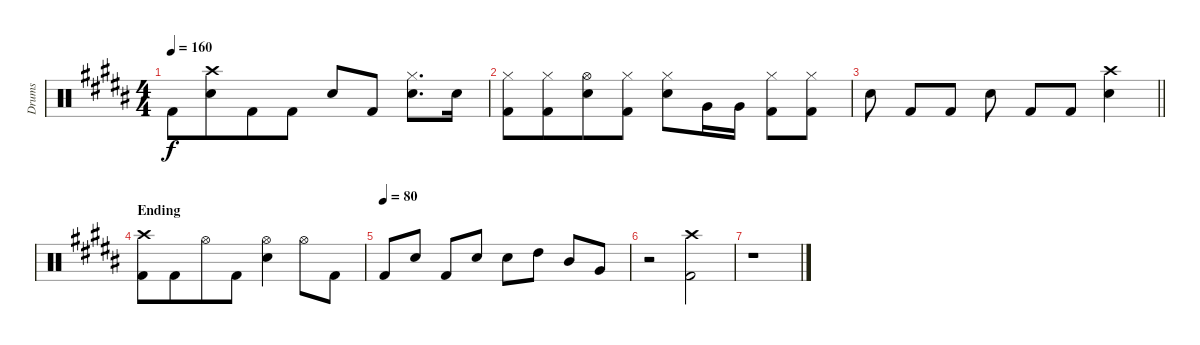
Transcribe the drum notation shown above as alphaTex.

\track ("Drums" "Drums") {instrument percussion}
\staff {score}
\articulation defaults
\ts (4 4)
\tempo 160
\clef neutral
\ks b "Kick (hit) 2".8{dy f}
("Snare (hit) 2" "Crash high (hit)").8{beam merge} "Kick (hit) 2".8 "Kick (hit) 2".8 "Snare (hit) 2".8 "Kick (hit) 2".8 ("Hi-Hat (closed)" "Snare (hit) 2").8{d} "Snare (hit) 2".16 |
("Hi-Hat (closed)" "Kick (hit) 2").8 ("Hi-Hat (closed)" "Kick (hit) 2").8{beam merge} ("Hi-Hat (open)" "Snare (hit) 2").8 ("Hi-Hat (closed)" "Kick (hit) 2").8 ("Hi-Hat (closed)" "Snare (hit) 2").8 "Very Low Tom (hit)".16 "Very Low Tom (hit)".16 ("Hi-Hat (closed)" "Kick (hit) 2").8 ("Hi-Hat (closed)" "Kick (hit) 2").8 |
\barLineRight lightlight "Snare (hit) 2".8{beam split} "Kick (hit) 2".8{beam merge} "Kick (hit) 2".8{beam split} "Snare (hit) 2".8 "Kick (hit) 2".8 "Kick (hit) 2".8
("Snare (hit) 2" "Crash high (hit)").4 |
\section ("" "Ending")
("Kick (hit) 2" "Crash high (hit)").8 "Kick (hit) 2".8{beam merge} "Hi-Hat (open)".8 "Kick (hit) 2".8 ("Hi-Hat (open)" "Snare (hit) 2").4 "Hi-Hat (open)".8 "Kick (hit) 2".8 |
\tempo (80)
"Kick (hit) 2".8 "Snare (hit) 2".8 "Kick (hit) 2".8 "Snare (hit) 2".8 "Snare (hit) 2".8 "High Tom (hit)".8 "Mid Tom (hit)".8 "Very Low Tom (hit)".8 |
r.2 ("Kick (hit) 2" "Crash high (hit)").2 |
r.1
